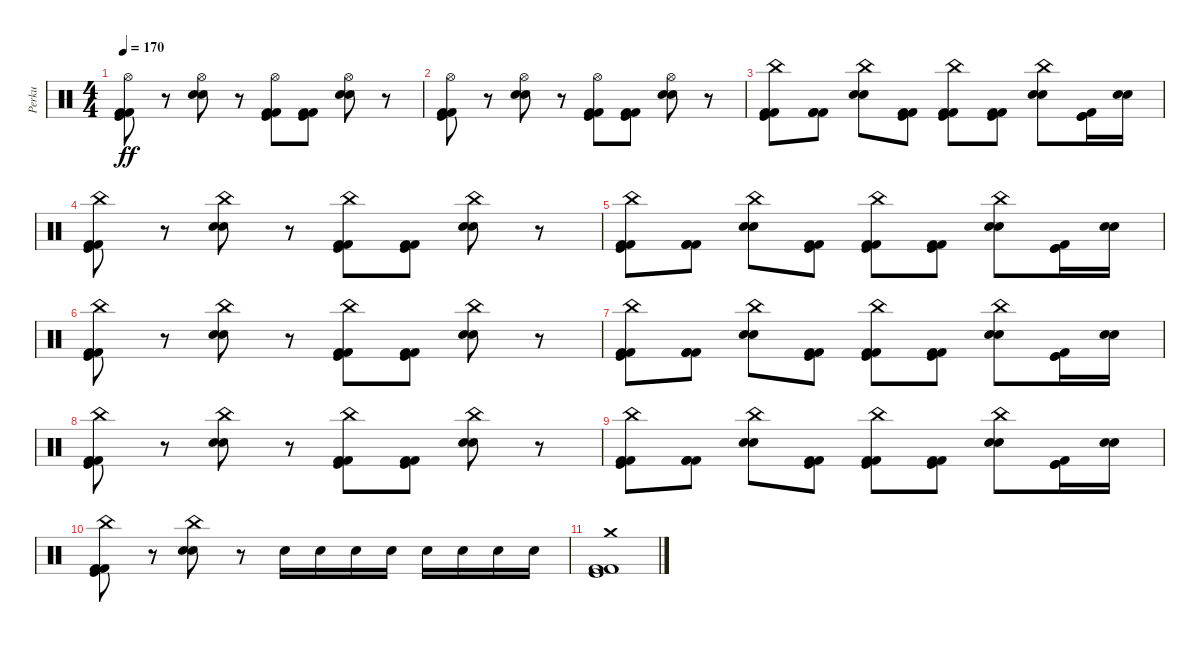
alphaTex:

\track ("Perku" "Perku") {instrument percussion}
\staff {score}
\articulation defaults
\ts (4 4)
\tempo 170
\clef neutral
\ks c
("Hi-Hat (open)" "Kick (hit) 2" "Kick (hit) 2" "Kick (hit)").8{dy ff} r.8 ("Hi-Hat (open)" "Electric Snare (hit)" "Electric Snare (hit)").8 r.8 ("Hi-Hat (open)" "Kick (hit) 2" "Kick (hit) 2" "Kick (hit)").8 ("Kick (hit)" "Kick (hit) 2" "Kick (hit) 2").8 ("Hi-Hat (open)" "Electric Snare (hit)" "Electric Snare (hit)").8 r.8 |
("Hi-Hat (open)" "Kick (hit) 2" "Kick (hit) 2" "Kick (hit)").8 r.8 ("Hi-Hat (open)" "Electric Snare (hit)" "Electric Snare (hit)").8 r.8 ("Hi-Hat (open)" "Kick (hit) 2" "Kick (hit) 2" "Kick (hit)").8 ("Kick (hit)" "Kick (hit) 2" "Kick (hit) 2").8 ("Hi-Hat (open)" "Electric Snare (hit)" "Electric Snare (hit)").8 r.8 |
("China (hit)" "Kick (hit) 2" "Kick (hit) 2" "Kick (hit)").8 ("Kick (hit) 2" "Kick (hit) 2" "Kick (hit) 2").8 ("China (hit)" "Electric Snare (hit)" "Electric Snare (hit)").8 ("Kick (hit) 2" "Kick (hit) 2" "Kick (hit)").8 ("China (hit)" "Kick (hit) 2" "Kick (hit) 2" "Kick (hit)").8 ("Kick (hit)" "Kick (hit) 2" "Kick (hit) 2").8 ("China (hit)" "Electric Snare (hit)" "Electric Snare (hit)").8 ("Kick (hit)" "Kick (hit) 2" "Kick (hit)").16 ("Electric Snare (hit)" "Electric Snare (hit)").16 |
("China (hit)" "Kick (hit) 2" "Kick (hit) 2" "Kick (hit)").8 r.8 ("China (hit)" "Electric Snare (hit)" "Electric Snare (hit)").8 r.8 ("China (hit)" "Kick (hit) 2" "Kick (hit) 2" "Kick (hit)").8 ("Kick (hit)" "Kick (hit) 2" "Kick (hit) 2").8 ("China (hit)" "Electric Snare (hit)" "Electric Snare (hit)").8 r.8 |
("China (hit)" "Kick (hit) 2" "Kick (hit) 2" "Kick (hit)").8 ("Kick (hit) 2" "Kick (hit) 2" "Kick (hit) 2").8 ("China (hit)" "Electric Snare (hit)" "Electric Snare (hit)").8 ("Kick (hit) 2" "Kick (hit) 2" "Kick (hit)").8 ("China (hit)" "Kick (hit) 2" "Kick (hit) 2" "Kick (hit)").8 ("Kick (hit)" "Kick (hit) 2" "Kick (hit) 2").8 ("China (hit)" "Electric Snare (hit)" "Electric Snare (hit)").8 ("Kick (hit)" "Kick (hit) 2" "Kick (hit)").16 ("Electric Snare (hit)" "Electric Snare (hit)").16 |
("China (hit)" "Kick (hit) 2" "Kick (hit) 2" "Kick (hit)").8 r.8 ("China (hit)" "Electric Snare (hit)" "Electric Snare (hit)").8 r.8 ("China (hit)" "Kick (hit) 2" "Kick (hit) 2" "Kick (hit)").8 ("Kick (hit)" "Kick (hit) 2" "Kick (hit) 2").8 ("China (hit)" "Electric Snare (hit)" "Electric Snare (hit)").8 r.8 |
("China (hit)" "Kick (hit) 2" "Kick (hit) 2" "Kick (hit)").8 ("Kick (hit) 2" "Kick (hit) 2" "Kick (hit) 2").8 ("China (hit)" "Electric Snare (hit)" "Electric Snare (hit)").8 ("Kick (hit) 2" "Kick (hit) 2" "Kick (hit)").8 ("China (hit)" "Kick (hit) 2" "Kick (hit) 2" "Kick (hit)").8 ("Kick (hit)" "Kick (hit) 2" "Kick (hit) 2").8 ("China (hit)" "Electric Snare (hit)" "Electric Snare (hit)").8 ("Kick (hit)" "Kick (hit) 2" "Kick (hit)").16 ("Electric Snare (hit)" "Electric Snare (hit)").16 |
("China (hit)" "Kick (hit) 2" "Kick (hit) 2" "Kick (hit)").8 r.8 ("China (hit)" "Electric Snare (hit)" "Electric Snare (hit)").8 r.8 ("China (hit)" "Kick (hit) 2" "Kick (hit) 2" "Kick (hit)").8 ("Kick (hit)" "Kick (hit) 2" "Kick (hit) 2").8 ("China (hit)" "Electric Snare (hit)" "Electric Snare (hit)").8 r.8 |
("China (hit)" "Kick (hit) 2" "Kick (hit) 2" "Kick (hit)").8 ("Kick (hit) 2" "Kick (hit) 2" "Kick (hit) 2").8 ("China (hit)" "Electric Snare (hit)" "Electric Snare (hit)").8 ("Kick (hit) 2" "Kick (hit) 2" "Kick (hit)").8 ("China (hit)" "Kick (hit) 2" "Kick (hit) 2" "Kick (hit)").8 ("Kick (hit)" "Kick (hit) 2" "Kick (hit) 2").8 ("China (hit)" "Electric Snare (hit)" "Electric Snare (hit)").8 ("Kick (hit)" "Kick (hit) 2" "Kick (hit)").16 ("Electric Snare (hit)" "Electric Snare (hit)").16 |
("China (hit)" "Kick (hit) 2" "Kick (hit) 2" "Kick (hit)").8 r.8 ("China (hit)" "Electric Snare (hit)" "Electric Snare (hit)").8 r.8 "Electric Snare (hit)".16 "Electric Snare (hit)".16 "Electric Snare (hit)".16 "Electric Snare (hit)".16 "Electric Snare (hit)".16 "Electric Snare (hit)".16 "Electric Snare (hit)".16 "Electric Snare (hit)".16 |
("Crash medium (hit)" "Kick (hit) 2" "Kick (hit) 2" "Kick (hit)").1
